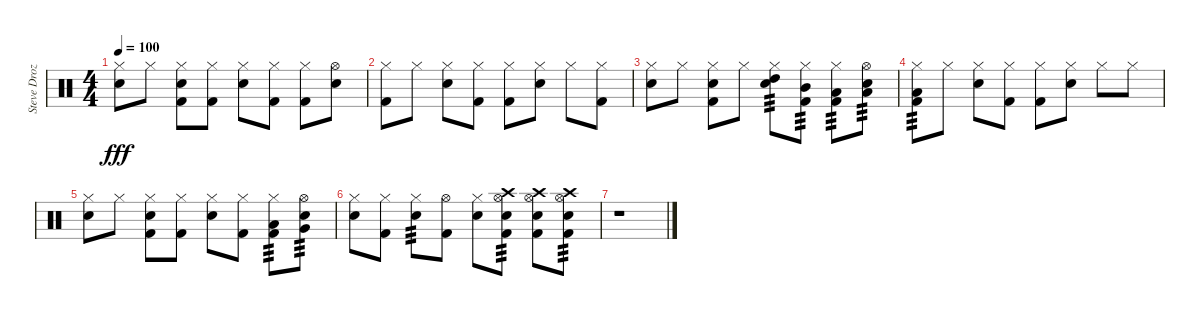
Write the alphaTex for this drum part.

\track ("Steve Drozd" "Steve Droz") {instrument percussion}
\staff {score}
\articulation defaults
\ts (4 4)
\tempo 100
\clef neutral
\ks c
("Electric Snare (hit)" "Hi-Hat (closed)").8{dy fff} "Hi-Hat (closed)".8 ("Kick (hit) 2" "Electric Snare (hit)" "Hi-Hat (closed)").8 ("Kick (hit) 2" "Hi-Hat (closed)").8 ("Electric Snare (hit)" "Hi-Hat (closed)").8 ("Kick (hit) 2" "Hi-Hat (closed)").8 ("Kick (hit) 2" "Hi-Hat (closed)").8 ("Electric Snare (hit)" "Hi-Hat (open)").8 |
("Kick (hit) 2" "Hi-Hat (closed)").8 "Hi-Hat (closed)".8 ("Electric Snare (hit)" "Hi-Hat (closed)").8 ("Kick (hit) 2" "Hi-Hat (closed)").8 ("Kick (hit) 2" "Hi-Hat (closed)").8 ("Electric Snare (hit)" "Hi-Hat (closed)").8 "Hi-Hat (closed)".8 ("Kick (hit) 2" "Hi-Hat (closed)").8 |
("Electric Snare (hit)" "Hi-Hat (closed)").8 "Hi-Hat (closed)".8 ("Kick (hit) 2" "Electric Snare (hit)" "Hi-Hat (closed)").8 "Hi-Hat (closed)".8 ("High Tom (hit)" "Electric Snare (hit)" "Hi-Hat (closed)").8{tp 3} ("Mid Tom (hit)" "Kick (hit) 2" "Hi-Hat (closed)").8{tp 3} ("Low Tom (hit)" "Kick (hit) 2" "Hi-Hat (closed)").8{tp 3} ("Low Tom (hit)" "Electric Snare (hit)" "Hi-Hat (open)").8{tp 3} |
("Low Floor Tom (hit)" "Kick (hit) 2" "Hi-Hat (closed)").8{tp 3} "Hi-Hat (closed)".8 ("Electric Snare (hit)" "Hi-Hat (closed)").8 ("Kick (hit) 2" "Hi-Hat (closed)").8 ("Kick (hit) 2" "Hi-Hat (closed)").8 ("Electric Snare (hit)" "Hi-Hat (closed)").8 "Hi-Hat (closed)".8 "Hi-Hat (closed)".8 |
("Electric Snare (hit)" "Hi-Hat (closed)").8 "Hi-Hat (closed)".8 ("Kick (hit) 2" "Electric Snare (hit)" "Hi-Hat (closed)").8 ("Kick (hit) 2" "Hi-Hat (closed)").8 ("Electric Snare (hit)" "Hi-Hat (closed)").8 ("Kick (hit) 2" "Hi-Hat (closed)").8 ("Low Tom (hit)" "Kick (hit) 2" "Hi-Hat (closed)").8{tp 3} ("Very Low Tom (hit)" "Electric Snare (hit)" "Hi-Hat (open)").8{tp 3} |
("Electric Snare (hit)" "Hi-Hat (closed)").8 ("Kick (hit) 2" "Hi-Hat (closed)").8 ("Electric Snare (hit)" "Hi-Hat (closed)").8{tp 3} ("Kick (hit) 2" "Hi-Hat (open)").8 ("Electric Snare (hit)" "Hi-Hat (closed)").8 ("Crash high (hit)" "Kick (hit) 2" "Electric Snare (hit)" "Hi-Hat (open)").8{tp 3} ("Crash high (hit)" "Kick (hit) 2" "Electric Snare (hit)" "Hi-Hat (open)").8 ("Crash high (hit)" "Kick (hit) 2" "Electric Snare (hit)" "Hi-Hat (open)").8{tp 3} |
r.1
